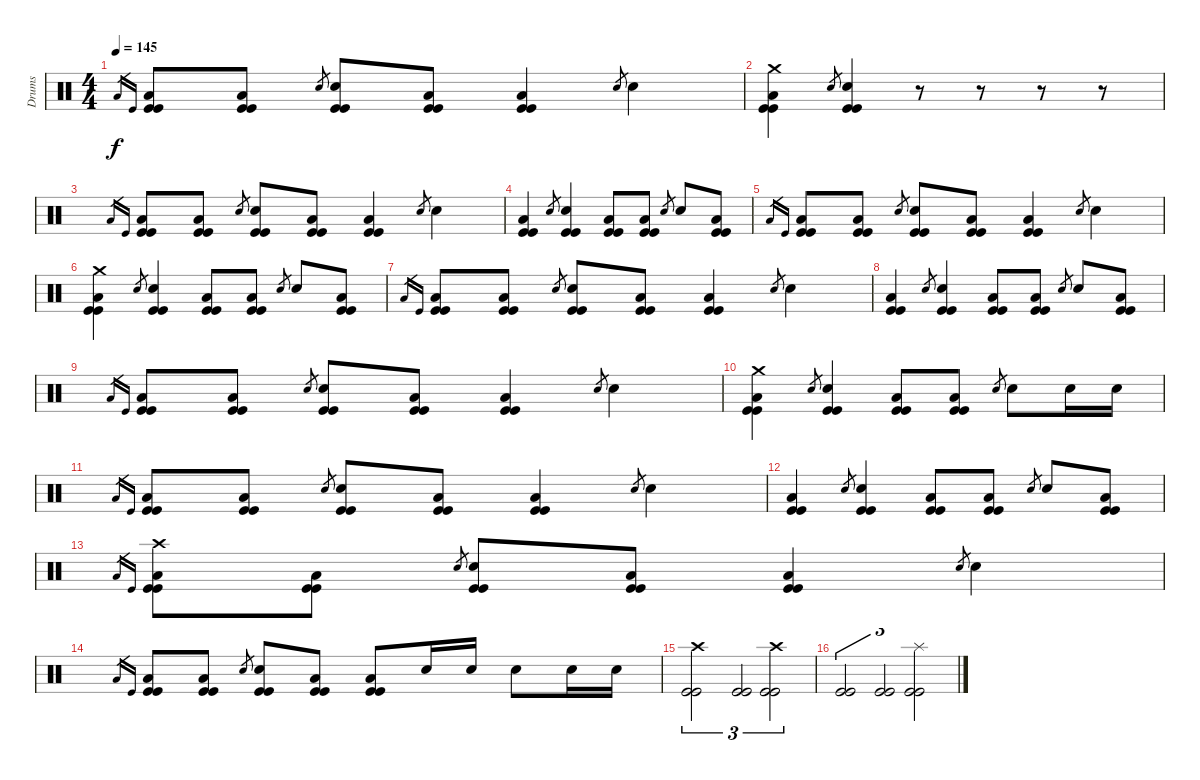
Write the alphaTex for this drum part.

\track ("Drums" "Drums") {instrument percussion}
\staff {score}
\articulation defaults
\ts (4 4)
\tempo 145
\clef neutral
\ks c "Low Floor Tom (hit)".16{gr dy f} "Kick (hit)".16{gr}
("Low Floor Tom (hit)" "Kick (hit)" "Kick (hit)").8 ("Low Floor Tom (hit)" "Kick (hit)" "Kick (hit)").8 "Electric Snare (hit)".8{gr} ("Electric Snare (hit)" "Kick (hit)" "Kick (hit)").8 ("Low Floor Tom (hit)" "Kick (hit)" "Kick (hit)").8 ("Low Floor Tom (hit)" "Kick (hit)" "Kick (hit)").4 "Electric Snare (hit)".8{gr} "Electric Snare (hit)".4 |
("Crash medium (hit)" "Low Floor Tom (hit)" "Kick (hit)" "Kick (hit)").4 "Electric Snare (hit)".8{gr} ("Electric Snare (hit)" "Kick (hit)" "Kick (hit)").4 r.8 r.8 r.8 r.8 |
"Low Floor Tom (hit)".16{gr} "Kick (hit)".16{gr} ("Low Floor Tom (hit)" "Kick (hit)" "Kick (hit)").8 ("Low Floor Tom (hit)" "Kick (hit)" "Kick (hit)").8 "Electric Snare (hit)".8{gr} ("Electric Snare (hit)" "Kick (hit)" "Kick (hit)").8 ("Low Floor Tom (hit)" "Kick (hit)" "Kick (hit)").8 ("Low Floor Tom (hit)" "Kick (hit)" "Kick (hit)").4 "Electric Snare (hit)".8{gr} "Electric Snare (hit)".4 |
("Low Floor Tom (hit)" "Kick (hit)" "Kick (hit)").4 "Electric Snare (hit)".8{gr} ("Electric Snare (hit)" "Kick (hit)" "Kick (hit)").4 ("Low Floor Tom (hit)" "Kick (hit)" "Kick (hit)").8 ("Low Floor Tom (hit)" "Kick (hit)" "Kick (hit)").8 "Electric Snare (hit)".8{gr} "Electric Snare (hit)".8 ("Low Floor Tom (hit)" "Kick (hit)" "Kick (hit)").8 |
"Low Floor Tom (hit)".16{gr} "Kick (hit)".16{gr} ("Low Floor Tom (hit)" "Kick (hit)" "Kick (hit)").8 ("Low Floor Tom (hit)" "Kick (hit)" "Kick (hit)").8 "Electric Snare (hit)".8{gr} ("Electric Snare (hit)" "Kick (hit)" "Kick (hit)").8 ("Low Floor Tom (hit)" "Kick (hit)" "Kick (hit)").8 ("Low Floor Tom (hit)" "Kick (hit)" "Kick (hit)").4 "Electric Snare (hit)".8{gr} "Electric Snare (hit)".4 |
("Crash medium (hit)" "Low Floor Tom (hit)" "Kick (hit)" "Kick (hit)").4 "Electric Snare (hit)".8{gr} ("Electric Snare (hit)" "Kick (hit)" "Kick (hit)").4 ("Low Floor Tom (hit)" "Kick (hit)" "Kick (hit)").8 ("Low Floor Tom (hit)" "Kick (hit)" "Kick (hit)").8 "Electric Snare (hit)".8{gr} "Electric Snare (hit)".8 ("Low Floor Tom (hit)" "Kick (hit)" "Kick (hit)").8 |
"Low Floor Tom (hit)".16{gr} "Kick (hit)".16{gr} ("Low Floor Tom (hit)" "Kick (hit)" "Kick (hit)").8 ("Low Floor Tom (hit)" "Kick (hit)" "Kick (hit)").8 "Electric Snare (hit)".8{gr} ("Electric Snare (hit)" "Kick (hit)" "Kick (hit)").8 ("Low Floor Tom (hit)" "Kick (hit)" "Kick (hit)").8 ("Low Floor Tom (hit)" "Kick (hit)" "Kick (hit)").4 "Electric Snare (hit)".8{gr} "Electric Snare (hit)".4 |
("Low Floor Tom (hit)" "Kick (hit)" "Kick (hit)").4 "Electric Snare (hit)".8{gr} ("Electric Snare (hit)" "Kick (hit)" "Kick (hit)").4 ("Low Floor Tom (hit)" "Kick (hit)" "Kick (hit)").8 ("Low Floor Tom (hit)" "Kick (hit)" "Kick (hit)").8 "Electric Snare (hit)".8{gr} "Electric Snare (hit)".8 ("Low Floor Tom (hit)" "Kick (hit)" "Kick (hit)").8 |
"Low Floor Tom (hit)".16{gr} "Kick (hit)".16{gr} ("Low Floor Tom (hit)" "Kick (hit)" "Kick (hit)").8 ("Low Floor Tom (hit)" "Kick (hit)" "Kick (hit)").8 "Electric Snare (hit)".8{gr} ("Electric Snare (hit)" "Kick (hit)" "Kick (hit)").8 ("Low Floor Tom (hit)" "Kick (hit)" "Kick (hit)").8 ("Low Floor Tom (hit)" "Kick (hit)" "Kick (hit)").4 "Electric Snare (hit)".8{gr} "Electric Snare (hit)".4 |
("Crash medium (hit)" "Low Floor Tom (hit)" "Kick (hit)" "Kick (hit)").4 "Electric Snare (hit)".8{gr} ("Electric Snare (hit)" "Kick (hit)" "Kick (hit)").4 ("Low Floor Tom (hit)" "Kick (hit)" "Kick (hit)").8 ("Low Floor Tom (hit)" "Kick (hit)" "Kick (hit)").8 "Electric Snare (hit)".8{gr} "Electric Snare (hit)".8 "Electric Snare (hit)".16 "Electric Snare (hit)".16 |
"Low Floor Tom (hit)".16{gr} "Kick (hit)".16{gr} ("Low Floor Tom (hit)" "Kick (hit)" "Kick (hit)").8 ("Low Floor Tom (hit)" "Kick (hit)" "Kick (hit)").8 "Electric Snare (hit)".8{gr} ("Electric Snare (hit)" "Kick (hit)" "Kick (hit)").8 ("Low Floor Tom (hit)" "Kick (hit)" "Kick (hit)").8 ("Low Floor Tom (hit)" "Kick (hit)" "Kick (hit)").4 "Electric Snare (hit)".8{gr} "Electric Snare (hit)".4 |
("Low Floor Tom (hit)" "Kick (hit)" "Kick (hit)").4 "Electric Snare (hit)".8{gr} ("Electric Snare (hit)" "Kick (hit)" "Kick (hit)").4 ("Low Floor Tom (hit)" "Kick (hit)" "Kick (hit)").8 ("Low Floor Tom (hit)" "Kick (hit)" "Kick (hit)").8 "Electric Snare (hit)".8{gr} "Electric Snare (hit)".8 ("Low Floor Tom (hit)" "Kick (hit)" "Kick (hit)").8 |
"Low Floor Tom (hit)".16{gr} "Kick (hit)".16{gr} ("Crash high (hit)" "Low Floor Tom (hit)" "Kick (hit)" "Kick (hit)").8 ("Low Floor Tom (hit)" "Kick (hit)" "Kick (hit)").8 "Electric Snare (hit)".8{gr} ("Electric Snare (hit)" "Kick (hit)" "Kick (hit)").8 ("Low Floor Tom (hit)" "Kick (hit)" "Kick (hit)").8 ("Low Floor Tom (hit)" "Kick (hit)" "Kick (hit)").4 "Electric Snare (hit)".8{gr} "Electric Snare (hit)".4 |
"Low Floor Tom (hit)".16{gr} "Kick (hit)".16{gr} ("Low Floor Tom (hit)" "Kick (hit)" "Kick (hit)").8 ("Low Floor Tom (hit)" "Kick (hit)" "Kick (hit)").8 "Electric Snare (hit)".8{gr} ("Electric Snare (hit)" "Kick (hit)" "Kick (hit)").8 ("Low Floor Tom (hit)" "Kick (hit)" "Kick (hit)").8 ("Low Floor Tom (hit)" "Kick (hit)" "Kick (hit)").8 "Electric Snare (hit)".16 "Electric Snare (hit)".16 "Electric Snare (hit)".8 "Electric Snare (hit)".16 "Electric Snare (hit)".16 |
("Crash high (hit)" "Kick (hit)" "Kick (hit)").2{tu (3 2)} ("Kick (hit)" "Kick (hit)").2{tu (3 2)} ("Crash high (hit)" "Kick (hit)" "Kick (hit)").2{tu (3 2)} |
("Kick (hit)" "Kick (hit)").2{tu (3 2)} ("Kick (hit)" "Kick (hit)").2{tu (3 2)} ("Splash (hit)" "Kick (hit)" "Kick (hit)").2{tu (3 2)}
